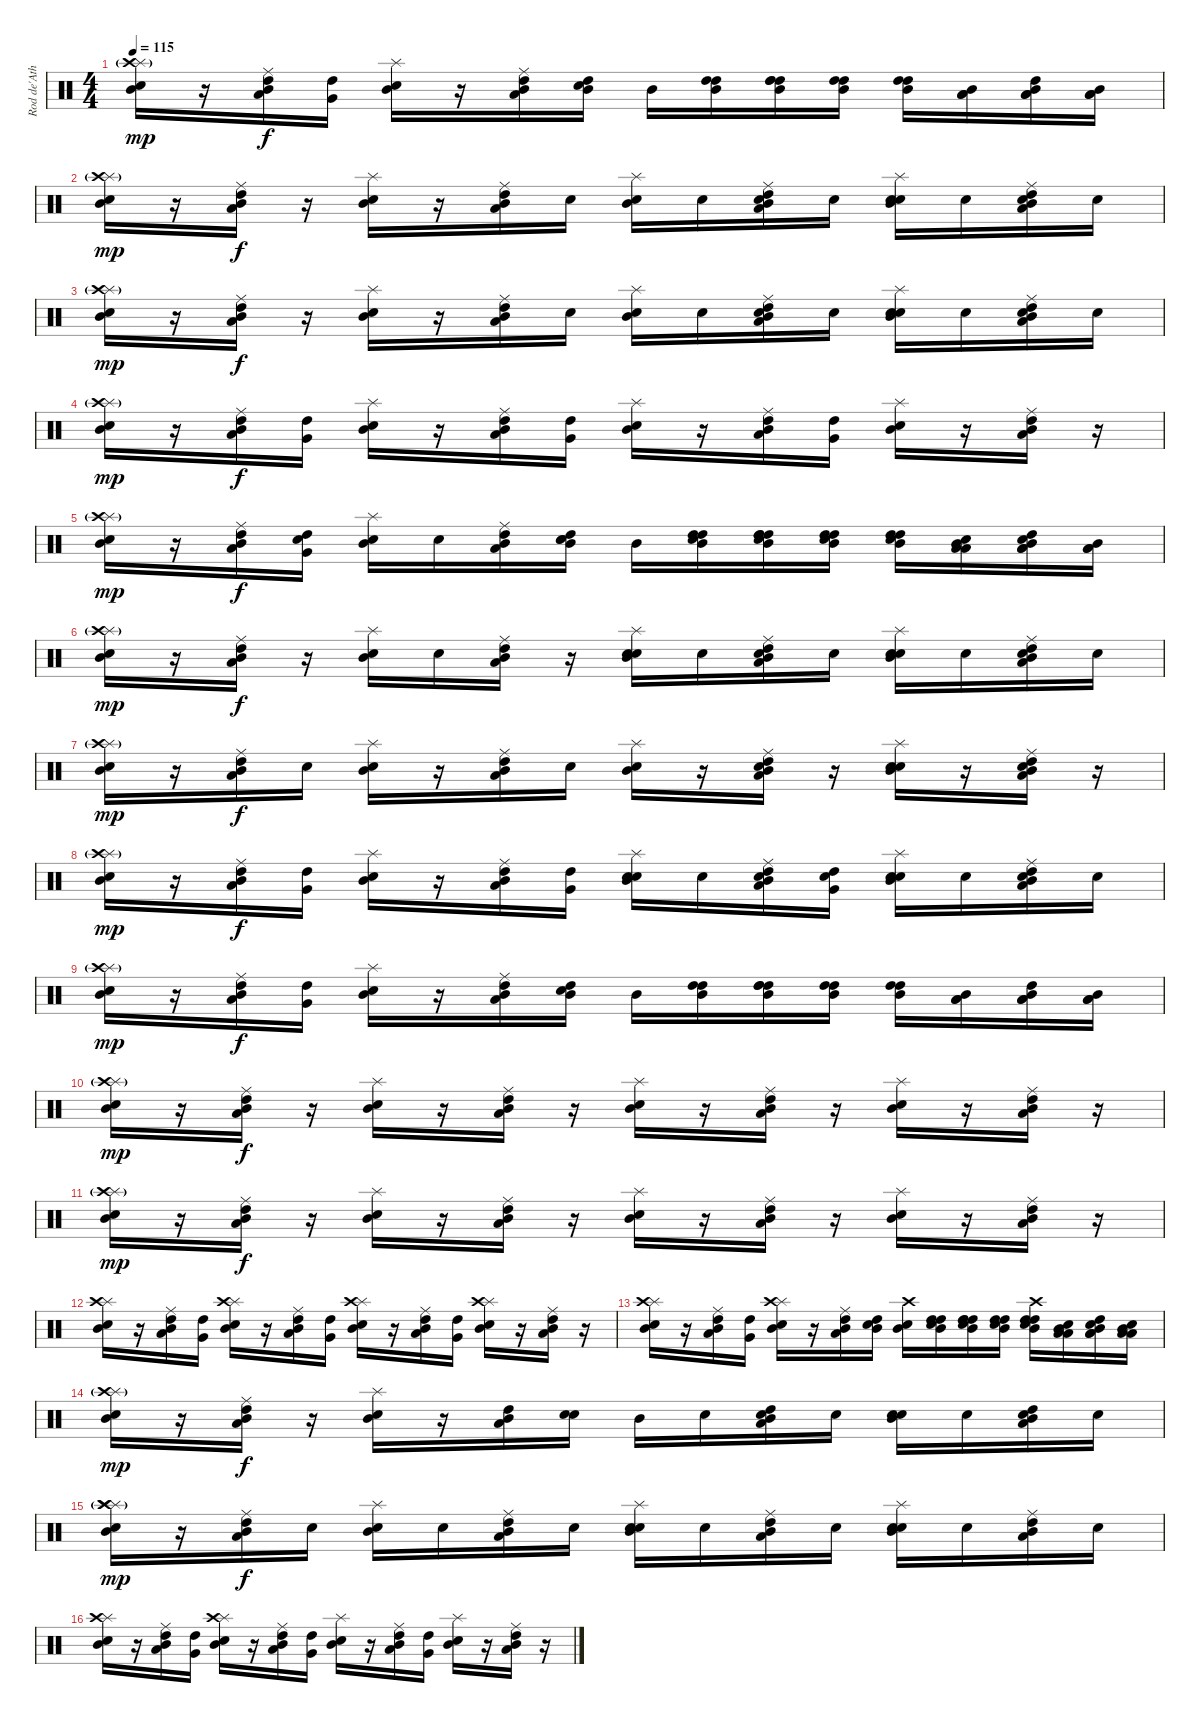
\track ("Rod de'Ath" "Rod de'Ath") {instrument percussion}
\staff {score}
\articulation defaults
\ts (4 4)
\tempo 115
\clef neutral
\ks c
("Splash (hit)" "Snare (hit) 2" "Crash high (hit)"{g} "Mid Tom (hit)").16{dy mp} r.16 ("Ride (middle)" "Low Tom (hit)" "High Tom (hit)" "Mid Tom (hit)").16{dy f} ("High Tom (hit)" "Very Low Tom (hit)").16 ("Splash (hit)" "Snare (hit) 2" "Mid Tom (hit)").16 r.16 ("Ride (middle)" "Low Tom (hit)" "High Tom (hit)" "Mid Tom (hit)").16 ("Electric Snare (hit)" "High Tom (hit)" "Mid Tom (hit)").16 "Mid Tom (hit)".16 ("High Tom (hit)" "High Tom (hit)" "Mid Tom (hit)").16 ("High Tom (hit)" "High Tom (hit)" "High Tom (hit)" "Mid Tom (hit)").16 ("High Tom (hit)" "High Tom (hit)" "Mid Tom (hit)").16 ("High Tom (hit)" "High Tom (hit)" "Mid Tom (hit)").16 ("Low Tom (hit)" "Low Tom (hit)" "Mid Tom (hit)").16 ("Low Tom (hit)" "Low Tom (hit)" "High Tom (hit)" "Mid Tom (hit)").16 ("Low Tom (hit)" "Low Tom (hit)" "Mid Tom (hit)").16 |
("Splash (hit)" "Snare (hit) 2" "Crash high (hit)"{g} "Mid Tom (hit)").16{dy mp} r.16 ("Ride (middle)" "Low Tom (hit)" "High Tom (hit)" "Mid Tom (hit)").16{dy f} r.16 ("Splash (hit)" "Snare (hit) 2" "Mid Tom (hit)").16 r.16 ("Ride (middle)" "Low Tom (hit)" "High Tom (hit)" "Mid Tom (hit)").16 "Snare (hit) 2".16 ("Splash (hit)" "Snare (hit) 2" "Mid Tom (hit)").16 "Snare (hit) 2".16 ("Ride (middle)" "Low Tom (hit)" "High Tom (hit)" "Electric Snare (hit)" "Mid Tom (hit)").16 "Electric Snare (hit)".16 ("Splash (hit)" "Snare (hit) 2" "Electric Snare (hit)" "Mid Tom (hit)").16 "Electric Snare (hit)".16 ("Ride (middle)" "Low Tom (hit)" "High Tom (hit)" "Electric Snare (hit)" "Mid Tom (hit)").16 "Electric Snare (hit)".16 |
("Splash (hit)" "Snare (hit) 2" "Crash high (hit)"{g} "Mid Tom (hit)").16{dy mp} r.16 ("Ride (middle)" "Low Tom (hit)" "High Tom (hit)" "Mid Tom (hit)").16{dy f} r.16 ("Splash (hit)" "Snare (hit) 2" "Mid Tom (hit)").16 r.16 ("Ride (middle)" "Low Tom (hit)" "High Tom (hit)" "Mid Tom (hit)").16 "Snare (hit) 2".16 ("Splash (hit)" "Snare (hit) 2" "Mid Tom (hit)").16 "Snare (hit) 2".16 ("Ride (middle)" "Low Tom (hit)" "High Tom (hit)" "Electric Snare (hit)" "Mid Tom (hit)").16 "Electric Snare (hit)".16 ("Splash (hit)" "Snare (hit) 2" "Electric Snare (hit)" "Mid Tom (hit)").16 "Electric Snare (hit)".16 ("Ride (middle)" "Low Tom (hit)" "High Tom (hit)" "Electric Snare (hit)" "Mid Tom (hit)").16 "Electric Snare (hit)".16 |
("Splash (hit)" "Snare (hit) 2" "Crash high (hit)"{g} "Mid Tom (hit)").16{dy mp} r.16 ("Ride (middle)" "Low Tom (hit)" "High Tom (hit)" "Mid Tom (hit)").16{dy f} ("Very Low Tom (hit)" "High Tom (hit)").16 ("Splash (hit)" "Snare (hit) 2" "Mid Tom (hit)").16 r.16 ("Ride (middle)" "Low Tom (hit)" "High Tom (hit)" "Mid Tom (hit)").16 ("Very Low Tom (hit)" "High Tom (hit)").16 ("Splash (hit)" "Snare (hit) 2" "Mid Tom (hit)").16 r.16 ("Ride (middle)" "Low Tom (hit)" "High Tom (hit)" "Mid Tom (hit)").16 ("Very Low Tom (hit)" "High Tom (hit)").16 ("Splash (hit)" "Snare (hit) 2" "Mid Tom (hit)").16 r.16 ("Ride (middle)" "Low Tom (hit)" "High Tom (hit)" "Mid Tom (hit)").16 r.16 |
("Splash (hit)" "Snare (hit) 2" "Crash high (hit)"{g} "Mid Tom (hit)").16{dy mp} r.16 ("Ride (middle)" "Low Tom (hit)" "High Tom (hit)" "Mid Tom (hit)").16{dy f} ("High Tom (hit)" "Very Low Tom (hit)" "Electric Snare (hit)").16 ("Splash (hit)" "Snare (hit) 2" "Mid Tom (hit)").16 "Electric Snare (hit)".16 ("Ride (middle)" "Low Tom (hit)" "High Tom (hit)" "Mid Tom (hit)").16 ("Electric Snare (hit)" "High Tom (hit)" "Electric Snare (hit)" "Mid Tom (hit)").16 "Mid Tom (hit)".16 ("High Tom (hit)" "High Tom (hit)" "Electric Snare (hit)" "Mid Tom (hit)").16 ("High Tom (hit)" "High Tom (hit)" "High Tom (hit)" "Electric Snare (hit)" "Mid Tom (hit)").16 ("High Tom (hit)" "High Tom (hit)" "Electric Snare (hit)" "Mid Tom (hit)").16 ("High Tom (hit)" "High Tom (hit)" "Electric Snare (hit)" "Mid Tom (hit)").16 ("Low Tom (hit)" "Low Tom (hit)" "Electric Snare (hit)" "Mid Tom (hit)").16 ("Low Tom (hit)" "Low Tom (hit)" "High Tom (hit)" "Electric Snare (hit)" "Mid Tom (hit)").16 ("Low Tom (hit)" "Low Tom (hit)" "Mid Tom (hit)").16 |
("Splash (hit)" "Snare (hit) 2" "Crash high (hit)"{g} "Mid Tom (hit)").16{dy mp} r.16 ("Ride (middle)" "Low Tom (hit)" "High Tom (hit)" "Mid Tom (hit)").16{dy f} r.16 ("Splash (hit)" "Snare (hit) 2" "Mid Tom (hit)").16 "Electric Snare (hit)".16 ("Ride (middle)" "Low Tom (hit)" "High Tom (hit)" "Mid Tom (hit)").16 r.16 ("Splash (hit)" "Snare (hit) 2" "Snare (hit) 2" "Mid Tom (hit)").16 "Electric Snare (hit)".16 ("Ride (middle)" "Low Tom (hit)" "High Tom (hit)" "Electric Snare (hit)" "Mid Tom (hit)").16 "Electric Snare (hit)".16 ("Splash (hit)" "Snare (hit) 2" "Electric Snare (hit)" "Mid Tom (hit)").16 "Electric Snare (hit)".16 ("Ride (middle)" "Low Tom (hit)" "High Tom (hit)" "Electric Snare (hit)" "Mid Tom (hit)").16 "Electric Snare (hit)".16 |
("Splash (hit)" "Snare (hit) 2" "Crash high (hit)"{g} "Mid Tom (hit)").16{dy mp} r.16 ("Ride (middle)" "Low Tom (hit)" "High Tom (hit)" "Mid Tom (hit)").16{dy f} "Electric Snare (hit)".16 ("Splash (hit)" "Snare (hit) 2" "Mid Tom (hit)").16 r.16 ("Ride (middle)" "Low Tom (hit)" "High Tom (hit)" "Mid Tom (hit)").16 "Electric Snare (hit)".16 ("Splash (hit)" "Snare (hit) 2" "Mid Tom (hit)").16 r.16 ("Ride (middle)" "Low Tom (hit)" "High Tom (hit)" "Electric Snare (hit)" "Mid Tom (hit)").16 r.16 ("Splash (hit)" "Snare (hit) 2" "Electric Snare (hit)" "Mid Tom (hit)").16 r.16 ("Ride (middle)" "Low Tom (hit)" "High Tom (hit)" "Electric Snare (hit)" "Mid Tom (hit)").16 r.16 |
("Splash (hit)" "Snare (hit) 2" "Crash high (hit)"{g} "Mid Tom (hit)").16{dy mp} r.16 ("Ride (middle)" "Low Tom (hit)" "High Tom (hit)" "Mid Tom (hit)").16{dy f} ("Very Low Tom (hit)" "High Tom (hit)").16 ("Splash (hit)" "Snare (hit) 2" "Mid Tom (hit)").16 r.16 ("Ride (middle)" "Low Tom (hit)" "High Tom (hit)" "Mid Tom (hit)").16 ("Very Low Tom (hit)" "High Tom (hit)").16 ("Splash (hit)" "Snare (hit) 2" "Electric Snare (hit)" "Mid Tom (hit)").16 "Electric Snare (hit)".16 ("Ride (middle)" "Low Tom (hit)" "High Tom (hit)" "Electric Snare (hit)" "Mid Tom (hit)").16 ("Very Low Tom (hit)" "High Tom (hit)" "Electric Snare (hit)").16 ("Splash (hit)" "Snare (hit) 2" "Electric Snare (hit)" "Mid Tom (hit)").16 "Electric Snare (hit)".16 ("Ride (middle)" "Low Tom (hit)" "High Tom (hit)" "Electric Snare (hit)" "Mid Tom (hit)").16 "Electric Snare (hit)".16 |
("Splash (hit)" "Snare (hit) 2" "Crash high (hit)"{g} "Mid Tom (hit)").16{dy mp} r.16 ("Ride (middle)" "Low Tom (hit)" "High Tom (hit)" "Mid Tom (hit)").16{dy f} ("High Tom (hit)" "Very Low Tom (hit)").16 ("Splash (hit)" "Snare (hit) 2" "Mid Tom (hit)").16 r.16 ("Ride (middle)" "Low Tom (hit)" "High Tom (hit)" "Mid Tom (hit)").16 ("Electric Snare (hit)" "High Tom (hit)" "Mid Tom (hit)").16 "Mid Tom (hit)".16 ("High Tom (hit)" "High Tom (hit)" "Mid Tom (hit)").16 ("High Tom (hit)" "High Tom (hit)" "High Tom (hit)" "Mid Tom (hit)").16 ("High Tom (hit)" "High Tom (hit)" "Mid Tom (hit)").16 ("High Tom (hit)" "High Tom (hit)" "Mid Tom (hit)").16 ("Low Tom (hit)" "Low Tom (hit)" "Mid Tom (hit)").16 ("Low Tom (hit)" "Low Tom (hit)" "High Tom (hit)" "Mid Tom (hit)").16 ("Low Tom (hit)" "Low Tom (hit)" "Mid Tom (hit)").16 |
("Splash (hit)" "Snare (hit) 2" "Crash high (hit)"{g} "Mid Tom (hit)").16{dy mp} r.16 ("Ride (middle)" "Low Tom (hit)" "High Tom (hit)" "Mid Tom (hit)").16{dy f} r.16 ("Splash (hit)" "Snare (hit) 2" "Mid Tom (hit)").16 r.16 ("Ride (middle)" "Low Tom (hit)" "High Tom (hit)" "Mid Tom (hit)").16 r.16 ("Splash (hit)" "Snare (hit) 2" "Mid Tom (hit)").16 r.16 ("Ride (middle)" "Low Tom (hit)" "High Tom (hit)" "Mid Tom (hit)").16 r.16 ("Splash (hit)" "Snare (hit) 2" "Mid Tom (hit)").16 r.16 ("Ride (middle)" "Low Tom (hit)" "High Tom (hit)" "Mid Tom (hit)").16 r.16 |
("Splash (hit)" "Snare (hit) 2" "Crash high (hit)"{g} "Mid Tom (hit)").16{dy mp} r.16 ("Ride (middle)" "Low Tom (hit)" "High Tom (hit)" "Mid Tom (hit)").16{dy f} r.16 ("Splash (hit)" "Snare (hit) 2" "Mid Tom (hit)").16 r.16 ("Ride (middle)" "Low Tom (hit)" "High Tom (hit)" "Mid Tom (hit)").16 r.16 ("Splash (hit)" "Snare (hit) 2" "Mid Tom (hit)").16 r.16 ("Ride (middle)" "Low Tom (hit)" "High Tom (hit)" "Mid Tom (hit)").16 r.16 ("Splash (hit)" "Snare (hit) 2" "Mid Tom (hit)").16 r.16 ("Ride (middle)" "Low Tom (hit)" "High Tom (hit)" "Mid Tom (hit)").16 r.16 |
("Splash (hit)" "Snare (hit) 2" "Crash high (hit)" "Mid Tom (hit)").16 r.16 ("Ride (middle)" "Low Tom (hit)" "High Tom (hit)" "Mid Tom (hit)").16 ("Very Low Tom (hit)" "High Tom (hit)").16 ("Splash (hit)" "Snare (hit) 2" "Crash high (hit)" "Mid Tom (hit)").16 r.16 ("Ride (middle)" "Low Tom (hit)" "High Tom (hit)" "Mid Tom (hit)").16 ("Very Low Tom (hit)" "High Tom (hit)").16 ("Splash (hit)" "Snare (hit) 2" "Crash high (hit)" "Mid Tom (hit)").16 r.16 ("Ride (middle)" "Low Tom (hit)" "High Tom (hit)" "Mid Tom (hit)").16 ("Very Low Tom (hit)" "High Tom (hit)").16 ("Splash (hit)" "Snare (hit) 2" "Crash high (hit)" "Mid Tom (hit)").16 r.16 ("Ride (middle)" "Low Tom (hit)" "High Tom (hit)" "Mid Tom (hit)").16 r.16 |
("Splash (hit)" "Snare (hit) 2" "Crash high (hit)" "Mid Tom (hit)").16 r.16 ("Ride (middle)" "Low Tom (hit)" "High Tom (hit)" "Mid Tom (hit)").16 ("High Tom (hit)" "Very Low Tom (hit)").16 ("Splash (hit)" "Snare (hit) 2" "Crash high (hit)" "Mid Tom (hit)").16 r.16 ("Ride (middle)" "Low Tom (hit)" "High Tom (hit)" "Mid Tom (hit)").16 ("Electric Snare (hit)" "High Tom (hit)" "Mid Tom (hit)").16 ("Snare (hit) 2" "Crash high (hit)" "Mid Tom (hit)").16 ("High Tom (hit)" "High Tom (hit)" "Electric Snare (hit)" "Mid Tom (hit)").16 ("High Tom (hit)" "High Tom (hit)" "High Tom (hit)" "Electric Snare (hit)" "Mid Tom (hit)").16 ("High Tom (hit)" "High Tom (hit)" "Electric Snare (hit)" "Mid Tom (hit)").16 ("High Tom (hit)" "High Tom (hit)" "Electric Snare (hit)" "Crash high (hit)" "Mid Tom (hit)").16 ("Low Tom (hit)" "Low Tom (hit)" "Electric Snare (hit)" "Mid Tom (hit)").16 ("Low Tom (hit)" "Low Tom (hit)" "High Tom (hit)" "Electric Snare (hit)" "Mid Tom (hit)").16 ("Low Tom (hit)" "Low Tom (hit)" "Electric Snare (hit)" "Mid Tom (hit)").16 |
("Splash (hit)" "Snare (hit) 2" "Crash high (hit)"{g} "Mid Tom (hit)").16{dy mp} r.16 ("Ride (middle)" "Low Tom (hit)" "High Tom (hit)" "Mid Tom (hit)").16{dy f} r.16 ("Splash (hit)" "Snare (hit) 2" "Mid Tom (hit)").16 r.16 ("Low Tom (hit)" "High Tom (hit)" "Mid Tom (hit)").16 ("Electric Snare (hit)" "Electric Snare (hit)").16 "Mid Tom (hit)".16 "Electric Snare (hit)".16 ("Low Tom (hit)" "High Tom (hit)" "Electric Snare (hit)" "Mid Tom (hit)").16 "Electric Snare (hit)".16 ("Snare (hit) 2" "Electric Snare (hit)" "Mid Tom (hit)").16 "Electric Snare (hit)".16 ("Low Tom (hit)" "High Tom (hit)" "Electric Snare (hit)" "Mid Tom (hit)").16 "Electric Snare (hit)".16 |
("Splash (hit)" "Snare (hit) 2" "Crash high (hit)" "Crash high (hit)"{g} "Mid Tom (hit)").16{dy mp} r.16 ("Ride (middle)" "Low Tom (hit)" "High Tom (hit)" "Mid Tom (hit)").16{dy f} "Electric Snare (hit)".16 ("Splash (hit)" "Snare (hit) 2" "Mid Tom (hit)").16 "Electric Snare (hit)".16 ("Ride (middle)" "Low Tom (hit)" "High Tom (hit)" "Mid Tom (hit)").16 "Electric Snare (hit)".16 ("Splash (hit)" "Snare (hit) 2" "Electric Snare (hit)" "Mid Tom (hit)").16 "Electric Snare (hit)".16 ("Ride (middle)" "Low Tom (hit)" "High Tom (hit)" "Mid Tom (hit)").16 "Electric Snare (hit)".16 ("Splash (hit)" "Snare (hit) 2" "Electric Snare (hit)" "Mid Tom (hit)").16 "Electric Snare (hit)".16 ("Ride (middle)" "Low Tom (hit)" "High Tom (hit)" "Mid Tom (hit)").16 "Electric Snare (hit)".16 |
("Splash (hit)" "Snare (hit) 2" "Crash high (hit)" "Mid Tom (hit)").16 r.16 ("Ride (middle)" "Low Tom (hit)" "High Tom (hit)" "Mid Tom (hit)").16 ("Very Low Tom (hit)" "High Tom (hit)").16 ("Splash (hit)" "Snare (hit) 2" "Crash high (hit)" "Mid Tom (hit)").16 r.16 ("Ride (middle)" "Low Tom (hit)" "High Tom (hit)" "Mid Tom (hit)").16 ("Very Low Tom (hit)" "High Tom (hit)").16 ("Splash (hit)" "Snare (hit) 2" "Mid Tom (hit)").16 r.16 ("Ride (middle)" "Low Tom (hit)" "High Tom (hit)" "Mid Tom (hit)").16 ("Very Low Tom (hit)" "High Tom (hit)").16 ("Splash (hit)" "Snare (hit) 2" "Mid Tom (hit)").16 r.16 ("Ride (middle)" "Low Tom (hit)" "High Tom (hit)" "Mid Tom (hit)").16 r.16
